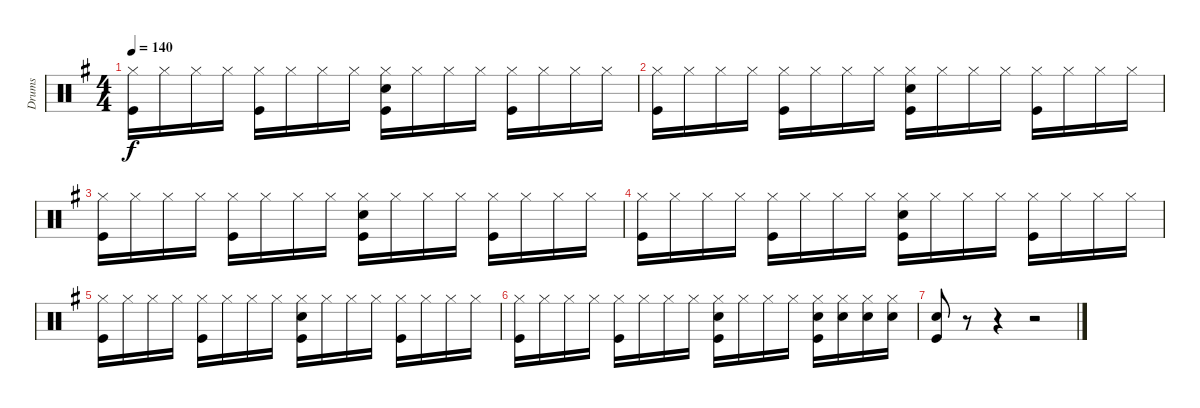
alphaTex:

\track ("Drums" "Drums") {instrument percussion}
\staff {score}
\articulation defaults
\ts (4 4)
\tempo 140
\clef neutral
\ks g
("Hi-Hat (closed)" "Kick (hit)").16{dy f} "Hi-Hat (closed)".16 "Hi-Hat (closed)".16 "Hi-Hat (closed)".16 ("Hi-Hat (closed)" "Kick (hit)").16 "Hi-Hat (closed)".16 "Hi-Hat (closed)".16 "Hi-Hat (closed)".16 ("Hi-Hat (closed)" "Snare (hit) 2" "Kick (hit)").16 "Hi-Hat (closed)".16 "Hi-Hat (closed)".16 "Hi-Hat (closed)".16 ("Hi-Hat (closed)" "Kick (hit)").16 "Hi-Hat (closed)".16 "Hi-Hat (closed)".16 "Hi-Hat (closed)".16 |
("Hi-Hat (closed)" "Kick (hit)").16 "Hi-Hat (closed)".16 "Hi-Hat (closed)".16 "Hi-Hat (closed)".16 ("Hi-Hat (closed)" "Kick (hit)").16 "Hi-Hat (closed)".16 "Hi-Hat (closed)".16 "Hi-Hat (closed)".16 ("Hi-Hat (closed)" "Snare (hit) 2" "Kick (hit)").16 "Hi-Hat (closed)".16 "Hi-Hat (closed)".16 "Hi-Hat (closed)".16 ("Hi-Hat (closed)" "Kick (hit)").16 "Hi-Hat (closed)".16 "Hi-Hat (closed)".16 "Hi-Hat (closed)".16 |
("Hi-Hat (closed)" "Kick (hit)").16 "Hi-Hat (closed)".16 "Hi-Hat (closed)".16 "Hi-Hat (closed)".16 ("Hi-Hat (closed)" "Kick (hit)").16 "Hi-Hat (closed)".16 "Hi-Hat (closed)".16 "Hi-Hat (closed)".16 ("Hi-Hat (closed)" "Snare (hit) 2" "Kick (hit)").16 "Hi-Hat (closed)".16 "Hi-Hat (closed)".16 "Hi-Hat (closed)".16 ("Hi-Hat (closed)" "Kick (hit)").16 "Hi-Hat (closed)".16 "Hi-Hat (closed)".16 "Hi-Hat (closed)".16 |
("Hi-Hat (closed)" "Kick (hit)").16 "Hi-Hat (closed)".16 "Hi-Hat (closed)".16 "Hi-Hat (closed)".16 ("Hi-Hat (closed)" "Kick (hit)").16 "Hi-Hat (closed)".16 "Hi-Hat (closed)".16 "Hi-Hat (closed)".16 ("Hi-Hat (closed)" "Snare (hit) 2" "Kick (hit)").16 "Hi-Hat (closed)".16 "Hi-Hat (closed)".16 "Hi-Hat (closed)".16 ("Hi-Hat (closed)" "Kick (hit)").16 "Hi-Hat (closed)".16 "Hi-Hat (closed)".16 "Hi-Hat (closed)".16 |
("Hi-Hat (closed)" "Kick (hit)").16 "Hi-Hat (closed)".16 "Hi-Hat (closed)".16 "Hi-Hat (closed)".16 ("Hi-Hat (closed)" "Kick (hit)").16 "Hi-Hat (closed)".16 "Hi-Hat (closed)".16 "Hi-Hat (closed)".16 ("Hi-Hat (closed)" "Snare (hit) 2" "Kick (hit)").16 "Hi-Hat (closed)".16 "Hi-Hat (closed)".16 "Hi-Hat (closed)".16 ("Hi-Hat (closed)" "Kick (hit)").16 "Hi-Hat (closed)".16 "Hi-Hat (closed)".16 "Hi-Hat (closed)".16 |
("Hi-Hat (closed)" "Kick (hit)").16 "Hi-Hat (closed)".16 "Hi-Hat (closed)".16 "Hi-Hat (closed)".16 ("Hi-Hat (closed)" "Kick (hit)").16 "Hi-Hat (closed)".16 "Hi-Hat (closed)".16 "Hi-Hat (closed)".16 ("Hi-Hat (closed)" "Snare (hit) 2" "Kick (hit)").16 "Hi-Hat (closed)".16 "Hi-Hat (closed)".16 "Hi-Hat (closed)".16 ("Hi-Hat (closed)" "Snare (hit) 2" "Kick (hit)").16 ("Hi-Hat (closed)" "Snare (hit) 2").16 ("Hi-Hat (closed)" "Snare (hit) 2").16 ("Hi-Hat (closed)" "Snare (hit) 2").16 |
("Snare (hit) 2" "Kick (hit)").8 r.8 r.4 r.2
